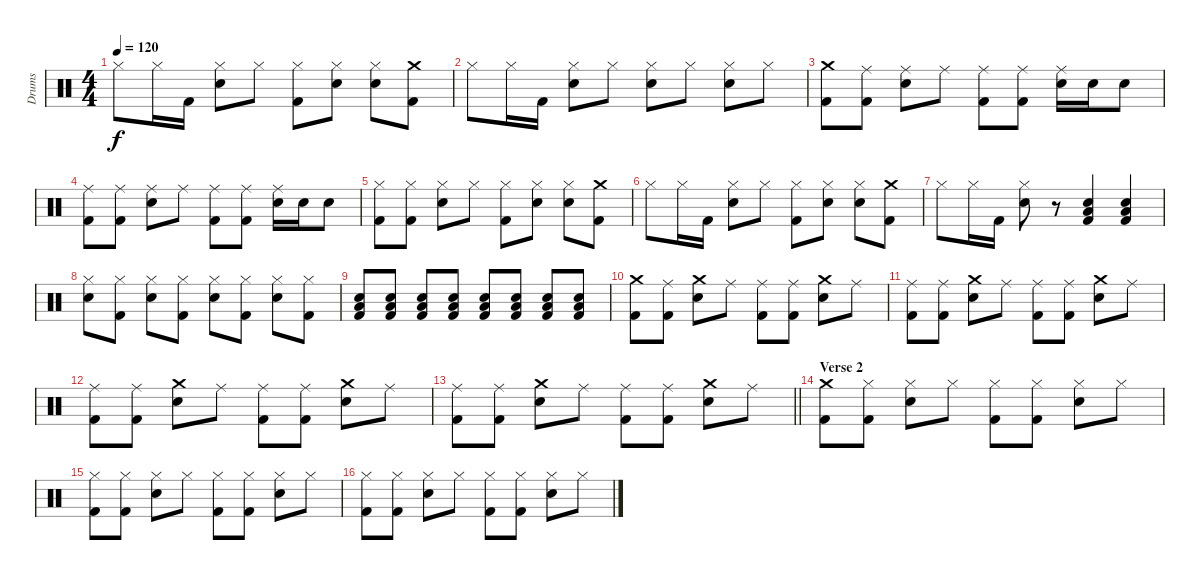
\track ("Drums" "Drums") {instrument percussion}
\staff {score}
\articulation defaults
\ts (4 4)
\tempo 120
\clef neutral
\ks c "Hi-Hat (closed)".8{dy f} "Hi-Hat (closed)".16 "Kick (hit) 2".16
("Hi-Hat (closed)" "Electric Snare (hit)").8 "Hi-Hat (closed)".8 ("Hi-Hat (closed)" "Kick (hit) 2").8 ("Hi-Hat (closed)" "Electric Snare (hit)").8 ("Hi-Hat (closed)" "Electric Snare (hit)").8 ("Crash medium (hit)" "Kick (hit) 2").8 |
"Hi-Hat (closed)".8 "Hi-Hat (closed)".16 "Kick (hit) 2".16 ("Hi-Hat (closed)" "Electric Snare (hit)").8 "Hi-Hat (closed)".8 ("Hi-Hat (closed)" "Electric Snare (hit)").8 "Hi-Hat (closed)".8 ("Hi-Hat (closed)" "Electric Snare (hit)").8 "Hi-Hat (closed)".8 |
("Crash medium (hit)" "Kick (hit) 2").8 ("Ride (middle)" "Kick (hit) 2").8 ("Ride (middle)" "Electric Snare (hit)").8 "Ride (middle)".8 ("Ride (middle)" "Kick (hit) 2").8 ("Ride (middle)" "Kick (hit) 2").8 ("Ride (middle)" "Electric Snare (hit)").16 "Electric Snare (hit)".16 "Electric Snare (hit)".8 |
("Ride (middle)" "Kick (hit) 2").8 ("Ride (middle)" "Kick (hit) 2").8 ("Ride (middle)" "Electric Snare (hit)").8 "Ride (middle)".8 ("Ride (middle)" "Kick (hit) 2").8 ("Ride (middle)" "Kick (hit) 2").8 ("Ride (middle)" "Electric Snare (hit)").16 "Electric Snare (hit)".16 "Electric Snare (hit)".8 |
("Hi-Hat (closed)" "Kick (hit) 2").8 ("Hi-Hat (closed)" "Kick (hit) 2").8 ("Hi-Hat (closed)" "Electric Snare (hit)").8 "Hi-Hat (closed)".8 ("Hi-Hat (closed)" "Kick (hit) 2").8 ("Hi-Hat (closed)" "Electric Snare (hit)").8 ("Hi-Hat (closed)" "Electric Snare (hit)").8 ("Crash medium (hit)" "Kick (hit) 2").8 |
"Hi-Hat (closed)".8 "Hi-Hat (closed)".16 "Kick (hit) 2".16 ("Hi-Hat (closed)" "Electric Snare (hit)").8 "Hi-Hat (closed)".8 ("Hi-Hat (closed)" "Kick (hit) 2").8 ("Hi-Hat (closed)" "Electric Snare (hit)").8 ("Hi-Hat (closed)" "Electric Snare (hit)").8 ("Crash medium (hit)" "Kick (hit) 2").8 |
"Hi-Hat (closed)".8 "Hi-Hat (closed)".16 "Kick (hit) 2".16 ("Hi-Hat (closed)" "Electric Snare (hit)").8 r.8 ("Electric Snare (hit)" "Low Tom (hit)" "Kick (hit) 2").4 ("Electric Snare (hit)" "Low Tom (hit)" "Kick (hit) 2").4 |
("Hi-Hat (closed)" "Electric Snare (hit)").8 ("Hi-Hat (closed)" "Kick (hit) 2").8 ("Hi-Hat (closed)" "Electric Snare (hit)").8 ("Hi-Hat (closed)" "Kick (hit) 2").8 ("Hi-Hat (closed)" "Electric Snare (hit)").8 ("Hi-Hat (closed)" "Kick (hit) 2").8 ("Hi-Hat (closed)" "Electric Snare (hit)").8 ("Hi-Hat (closed)" "Kick (hit) 2").8 |
("Electric Snare (hit)" "Low Tom (hit)" "Kick (hit) 2").8 ("Electric Snare (hit)" "Low Tom (hit)" "Kick (hit) 2").8 ("Electric Snare (hit)" "Low Tom (hit)" "Kick (hit) 2").8 ("Electric Snare (hit)" "Low Tom (hit)" "Kick (hit) 2").8 ("Electric Snare (hit)" "Low Tom (hit)" "Kick (hit) 2").8 ("Electric Snare (hit)" "Low Tom (hit)" "Kick (hit) 2").8 ("Electric Snare (hit)" "Low Tom (hit)" "Kick (hit) 2").8 ("Electric Snare (hit)" "Low Tom (hit)" "Kick (hit) 2").8 |
("Crash medium (hit)" "Kick (hit) 2").8 ("Ride (middle)" "Kick (hit) 2").8 ("Crash medium (hit)" "Electric Snare (hit)").8 "Ride (middle)".8 ("Ride (middle)" "Kick (hit) 2").8 ("Ride (middle)" "Kick (hit) 2").8 ("Crash medium (hit)" "Electric Snare (hit)").8 "Ride (middle)".8 |
("Ride (middle)" "Kick (hit) 2").8 ("Ride (middle)" "Kick (hit) 2").8 ("Crash medium (hit)" "Electric Snare (hit)").8 "Ride (middle)".8 ("Ride (middle)" "Kick (hit) 2").8 ("Ride (middle)" "Kick (hit) 2").8 ("Crash medium (hit)" "Electric Snare (hit)").8 "Ride (middle)".8 |
("Ride (middle)" "Kick (hit) 2").8 ("Ride (middle)" "Kick (hit) 2").8 ("Crash medium (hit)" "Electric Snare (hit)").8 "Ride (middle)".8 ("Ride (middle)" "Kick (hit) 2").8 ("Ride (middle)" "Kick (hit) 2").8 ("Crash medium (hit)" "Electric Snare (hit)").8 "Ride (middle)".8 |
\barLineRight lightlight
("Ride (middle)" "Kick (hit) 2").8 ("Ride (middle)" "Kick (hit) 2").8 ("Crash medium (hit)" "Electric Snare (hit)").8 "Ride (middle)".8 ("Ride (middle)" "Kick (hit) 2").8 ("Ride (middle)" "Kick (hit) 2").8 ("Crash medium (hit)" "Electric Snare (hit)").8 "Ride (middle)".8 |
\section ("" "Verse 2")
("Crash medium (hit)" "Kick (hit) 2").8 ("Hi-Hat (closed)" "Kick (hit) 2").8 ("Hi-Hat (closed)" "Electric Snare (hit)").8 "Hi-Hat (closed)".8 ("Hi-Hat (closed)" "Kick (hit) 2").8 ("Hi-Hat (closed)" "Kick (hit) 2").8 ("Hi-Hat (closed)" "Electric Snare (hit)").8 "Hi-Hat (closed)".8 |
("Hi-Hat (closed)" "Kick (hit) 2").8 ("Hi-Hat (closed)" "Kick (hit) 2").8 ("Hi-Hat (closed)" "Electric Snare (hit)").8 "Hi-Hat (closed)".8 ("Hi-Hat (closed)" "Kick (hit) 2").8 ("Hi-Hat (closed)" "Kick (hit) 2").8 ("Hi-Hat (closed)" "Electric Snare (hit)").8 "Hi-Hat (closed)".8 |
("Hi-Hat (closed)" "Kick (hit) 2").8 ("Hi-Hat (closed)" "Kick (hit) 2").8 ("Hi-Hat (closed)" "Electric Snare (hit)").8 "Hi-Hat (closed)".8 ("Hi-Hat (closed)" "Kick (hit) 2").8 ("Hi-Hat (closed)" "Kick (hit) 2").8 ("Hi-Hat (closed)" "Electric Snare (hit)").8 "Hi-Hat (closed)".8
